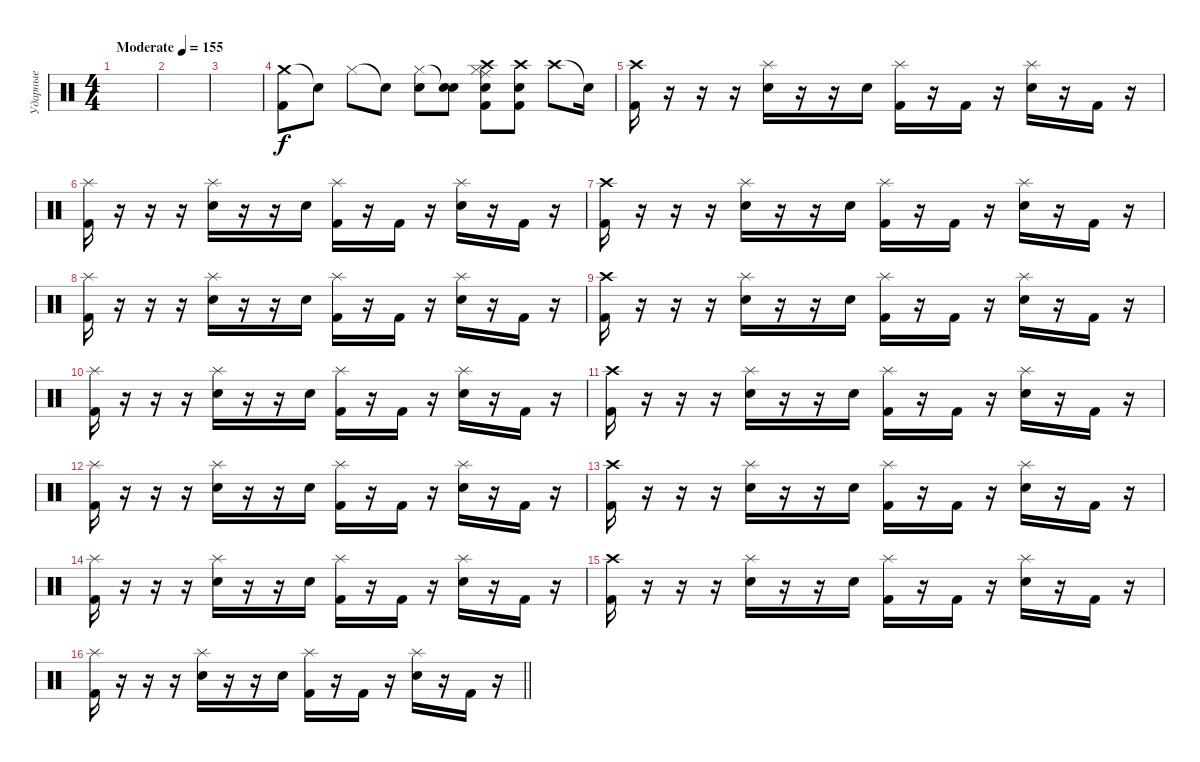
\track ("Ударные" "Ударные") {instrument percussion}
\staff {score}
\articulation defaults
\ts (4 4)
\tempo (155 "Moderate")
\clef neutral
\ks c
|
|
|
("Crash medium (hit)" "Kick (hit) 2").8 "Snare (hit)"{t}.8 "Hi-Hat (closed)".8 "Snare (hit)"{t}.8 ("Hi-Hat (closed)" "Electric Snare (hit)").8 ("Snare (hit)"{t} "Electric Snare (hit)").8 ("Hi-Hat (closed)" "Electric Snare (hit)" "Crash high (hit)" "Ride (middle)" "Kick (hit) 2").8 ("Crash high (hit)" "Electric Snare (hit)" "Kick (hit) 2").8 "Crash high (hit)".8 "Snare (hit)"{t}.16 |
("Crash high (hit)" "Kick (hit) 2").16 r.16 r.16 r.16 ("Splash (hit)" "Electric Snare (hit)").16 r.16 r.16 "Electric Snare (hit)".16 ("Splash (hit)" "Kick (hit) 2").16 r.16 "Kick (hit) 2".16 r.16 ("Splash (hit)" "Electric Snare (hit)").16 r.16 "Kick (hit) 2".16 r.16 |
("Splash (hit)" "Kick (hit) 2").16 r.16 r.16 r.16 ("Splash (hit)" "Electric Snare (hit)").16 r.16 r.16 "Electric Snare (hit)".16 ("Splash (hit)" "Kick (hit) 2").16 r.16 "Kick (hit) 2".16 r.16 ("Splash (hit)" "Electric Snare (hit)").16 r.16 "Kick (hit) 2".16 r.16 |
("Crash high (hit)" "Kick (hit) 2").16 r.16 r.16 r.16 ("Splash (hit)" "Electric Snare (hit)").16 r.16 r.16 "Electric Snare (hit)".16 ("Splash (hit)" "Kick (hit) 2").16 r.16 "Kick (hit) 2".16 r.16 ("Splash (hit)" "Electric Snare (hit)").16 r.16 "Kick (hit) 2".16 r.16 |
("Splash (hit)" "Kick (hit) 2").16 r.16 r.16 r.16 ("Splash (hit)" "Electric Snare (hit)").16 r.16 r.16 "Electric Snare (hit)".16 ("Splash (hit)" "Kick (hit) 2").16 r.16 "Kick (hit) 2".16 r.16 ("Splash (hit)" "Electric Snare (hit)").16 r.16 "Kick (hit) 2".16 r.16 |
("Crash high (hit)" "Kick (hit) 2").16 r.16 r.16 r.16 ("Splash (hit)" "Electric Snare (hit)").16 r.16 r.16 "Electric Snare (hit)".16 ("Splash (hit)" "Kick (hit) 2").16 r.16 "Kick (hit) 2".16 r.16 ("Splash (hit)" "Electric Snare (hit)").16 r.16 "Kick (hit) 2".16 r.16 |
("Splash (hit)" "Kick (hit) 2").16 r.16 r.16 r.16 ("Splash (hit)" "Electric Snare (hit)").16 r.16 r.16 "Electric Snare (hit)".16 ("Splash (hit)" "Kick (hit) 2").16 r.16 "Kick (hit) 2".16 r.16 ("Splash (hit)" "Electric Snare (hit)").16 r.16 "Kick (hit) 2".16 r.16 |
("Crash high (hit)" "Kick (hit) 2").16 r.16 r.16 r.16 ("Splash (hit)" "Electric Snare (hit)").16 r.16 r.16 "Electric Snare (hit)".16 ("Splash (hit)" "Kick (hit) 2").16 r.16 "Kick (hit) 2".16 r.16 ("Splash (hit)" "Electric Snare (hit)").16 r.16 "Kick (hit) 2".16 r.16 |
("Splash (hit)" "Kick (hit) 2").16 r.16 r.16 r.16 ("Splash (hit)" "Electric Snare (hit)").16 r.16 r.16 "Electric Snare (hit)".16 ("Splash (hit)" "Kick (hit) 2").16 r.16 "Kick (hit) 2".16 r.16 ("Splash (hit)" "Electric Snare (hit)").16 r.16 "Kick (hit) 2".16 r.16 |
("Crash high (hit)" "Kick (hit) 2").16 r.16 r.16 r.16 ("Splash (hit)" "Electric Snare (hit)").16 r.16 r.16 "Electric Snare (hit)".16 ("Splash (hit)" "Kick (hit) 2").16 r.16 "Kick (hit) 2".16 r.16 ("Splash (hit)" "Electric Snare (hit)").16 r.16 "Kick (hit) 2".16 r.16 |
("Splash (hit)" "Kick (hit) 2").16 r.16 r.16 r.16 ("Splash (hit)" "Electric Snare (hit)").16 r.16 r.16 "Electric Snare (hit)".16 ("Splash (hit)" "Kick (hit) 2").16 r.16 "Kick (hit) 2".16 r.16 ("Splash (hit)" "Electric Snare (hit)").16 r.16 "Kick (hit) 2".16 r.16 |
("Crash high (hit)" "Kick (hit) 2").16 r.16 r.16 r.16 ("Splash (hit)" "Electric Snare (hit)").16 r.16 r.16 "Electric Snare (hit)".16 ("Splash (hit)" "Kick (hit) 2").16 r.16 "Kick (hit) 2".16 r.16 ("Splash (hit)" "Electric Snare (hit)").16 r.16 "Kick (hit) 2".16 r.16 |
\barLineRight lightlight
("Splash (hit)" "Kick (hit) 2").16 r.16 r.16 r.16 ("Splash (hit)" "Electric Snare (hit)").16 r.16 r.16 "Electric Snare (hit)".16 ("Splash (hit)" "Kick (hit) 2").16 r.16 "Kick (hit) 2".16 r.16 ("Splash (hit)" "Electric Snare (hit)").16 r.16 "Kick (hit) 2".16 r.16
